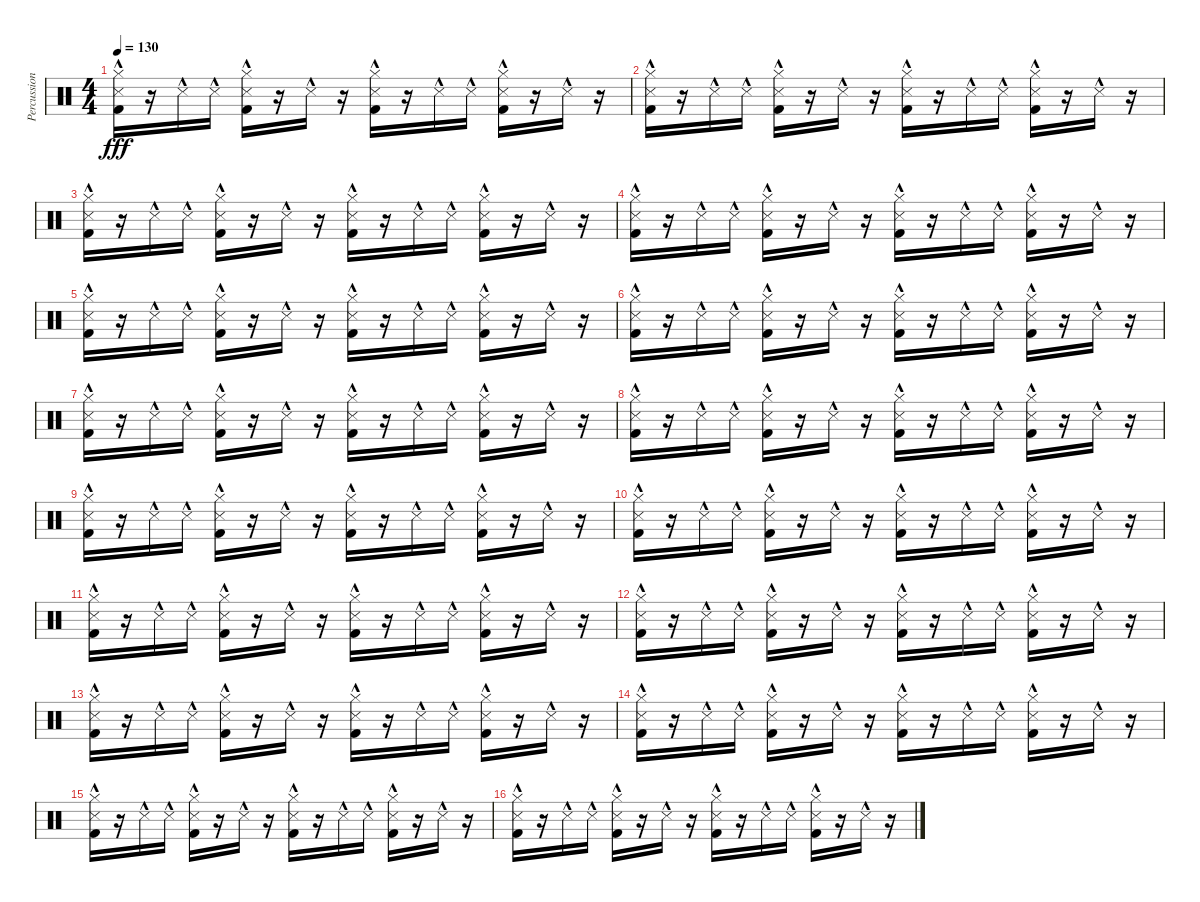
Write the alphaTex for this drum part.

\track ("Percussion" "Percussion") {instrument percussion}
\staff {score}
\articulation defaults
\ts (4 4)
\tempo 130
\clef neutral
\ks c
("Hi-Hat (closed)"{hac} "Snare (side stick) 3"{hac} "Kick (hit) 2"{hac}).16{dy fff} r.16 "Metronome (hit)"{hac}.16 "Metronome (hit)"{hac}.16 ("Hi-Hat (closed)"{hac} "Snare (side stick) 3"{hac} "Kick (hit) 2"{hac}).16 r.16 "Metronome (hit)"{hac}.16 r.16 ("Hi-Hat (closed)"{hac} "Snare (side stick) 3"{hac} "Kick (hit) 2"{hac}).16 r.16 "Metronome (hit)"{hac}.16 "Metronome (hit)"{hac}.16 ("Hi-Hat (closed)"{hac} "Snare (side stick) 3"{hac} "Kick (hit) 2"{hac}).16 r.16 "Metronome (hit)"{hac}.16 r.16 |
("Hi-Hat (closed)"{hac} "Snare (side stick) 3"{hac} "Kick (hit) 2"{hac}).16 r.16 "Metronome (hit)"{hac}.16 "Metronome (hit)"{hac}.16 ("Hi-Hat (closed)"{hac} "Snare (side stick) 3"{hac} "Kick (hit) 2"{hac}).16 r.16 "Metronome (hit)"{hac}.16 r.16 ("Hi-Hat (closed)"{hac} "Snare (side stick) 3"{hac} "Kick (hit) 2"{hac}).16 r.16 "Metronome (hit)"{hac}.16 "Metronome (hit)"{hac}.16 ("Hi-Hat (closed)"{hac} "Snare (side stick) 3"{hac} "Kick (hit) 2"{hac}).16 r.16 "Metronome (hit)"{hac}.16 r.16 |
("Hi-Hat (closed)"{hac} "Snare (side stick) 3"{hac} "Kick (hit) 2"{hac}).16 r.16 "Metronome (hit)"{hac}.16 "Metronome (hit)"{hac}.16 ("Hi-Hat (closed)"{hac} "Snare (side stick) 3"{hac} "Kick (hit) 2"{hac}).16 r.16 "Metronome (hit)"{hac}.16 r.16 ("Hi-Hat (closed)"{hac} "Snare (side stick) 3"{hac} "Kick (hit) 2"{hac}).16 r.16 "Metronome (hit)"{hac}.16 "Metronome (hit)"{hac}.16 ("Hi-Hat (closed)"{hac} "Snare (side stick) 3"{hac} "Kick (hit) 2"{hac}).16 r.16 "Metronome (hit)"{hac}.16 r.16 |
("Hi-Hat (closed)"{hac} "Snare (side stick) 3"{hac} "Kick (hit) 2"{hac}).16 r.16 "Metronome (hit)"{hac}.16 "Metronome (hit)"{hac}.16 ("Hi-Hat (closed)"{hac} "Snare (side stick) 3"{hac} "Kick (hit) 2"{hac}).16 r.16 "Metronome (hit)"{hac}.16 r.16 ("Hi-Hat (closed)"{hac} "Snare (side stick) 3"{hac} "Kick (hit) 2"{hac}).16 r.16 "Metronome (hit)"{hac}.16 "Metronome (hit)"{hac}.16 ("Hi-Hat (closed)"{hac} "Snare (side stick) 3"{hac} "Kick (hit) 2"{hac}).16 r.16 "Metronome (hit)"{hac}.16 r.16 |
("Hi-Hat (closed)"{hac} "Snare (side stick) 3"{hac} "Kick (hit) 2"{hac}).16 r.16 "Metronome (hit)"{hac}.16 "Metronome (hit)"{hac}.16 ("Hi-Hat (closed)"{hac} "Snare (side stick) 3"{hac} "Kick (hit) 2"{hac}).16 r.16 "Metronome (hit)"{hac}.16 r.16 ("Hi-Hat (closed)"{hac} "Snare (side stick) 3"{hac} "Kick (hit) 2"{hac}).16 r.16 "Metronome (hit)"{hac}.16 "Metronome (hit)"{hac}.16 ("Hi-Hat (closed)"{hac} "Snare (side stick) 3"{hac} "Kick (hit) 2"{hac}).16 r.16 "Metronome (hit)"{hac}.16 r.16 |
("Hi-Hat (closed)"{hac} "Snare (side stick) 3"{hac} "Kick (hit) 2"{hac}).16 r.16 "Metronome (hit)"{hac}.16 "Metronome (hit)"{hac}.16 ("Hi-Hat (closed)"{hac} "Snare (side stick) 3"{hac} "Kick (hit) 2"{hac}).16 r.16 "Metronome (hit)"{hac}.16 r.16 ("Hi-Hat (closed)"{hac} "Snare (side stick) 3"{hac} "Kick (hit) 2"{hac}).16 r.16 "Metronome (hit)"{hac}.16 "Metronome (hit)"{hac}.16 ("Hi-Hat (closed)"{hac} "Snare (side stick) 3"{hac} "Kick (hit) 2"{hac}).16 r.16 "Metronome (hit)"{hac}.16 r.16 |
("Hi-Hat (closed)"{hac} "Snare (side stick) 3"{hac} "Kick (hit) 2"{hac}).16 r.16 "Metronome (hit)"{hac}.16 "Metronome (hit)"{hac}.16 ("Hi-Hat (closed)"{hac} "Snare (side stick) 3"{hac} "Kick (hit) 2"{hac}).16 r.16 "Metronome (hit)"{hac}.16 r.16 ("Hi-Hat (closed)"{hac} "Snare (side stick) 3"{hac} "Kick (hit) 2"{hac}).16 r.16 "Metronome (hit)"{hac}.16 "Metronome (hit)"{hac}.16 ("Hi-Hat (closed)"{hac} "Snare (side stick) 3"{hac} "Kick (hit) 2"{hac}).16 r.16 "Metronome (hit)"{hac}.16 r.16 |
("Hi-Hat (closed)"{hac} "Snare (side stick) 3"{hac} "Kick (hit) 2"{hac}).16 r.16 "Metronome (hit)"{hac}.16 "Metronome (hit)"{hac}.16 ("Hi-Hat (closed)"{hac} "Snare (side stick) 3"{hac} "Kick (hit) 2"{hac}).16 r.16 "Metronome (hit)"{hac}.16 r.16 ("Hi-Hat (closed)"{hac} "Snare (side stick) 3"{hac} "Kick (hit) 2"{hac}).16 r.16 "Metronome (hit)"{hac}.16 "Metronome (hit)"{hac}.16 ("Hi-Hat (closed)"{hac} "Snare (side stick) 3"{hac} "Kick (hit) 2"{hac}).16 r.16 "Metronome (hit)"{hac}.16 r.16 |
("Hi-Hat (closed)"{hac} "Snare (side stick) 3"{hac} "Kick (hit) 2"{hac}).16 r.16 "Metronome (hit)"{hac}.16 "Metronome (hit)"{hac}.16 ("Hi-Hat (closed)"{hac} "Snare (side stick) 3"{hac} "Kick (hit) 2"{hac}).16 r.16 "Metronome (hit)"{hac}.16 r.16 ("Hi-Hat (closed)"{hac} "Snare (side stick) 3"{hac} "Kick (hit) 2"{hac}).16 r.16 "Metronome (hit)"{hac}.16 "Metronome (hit)"{hac}.16 ("Hi-Hat (closed)"{hac} "Snare (side stick) 3"{hac} "Kick (hit) 2"{hac}).16 r.16 "Metronome (hit)"{hac}.16 r.16 |
("Hi-Hat (closed)"{hac} "Snare (side stick) 3"{hac} "Kick (hit) 2"{hac}).16 r.16 "Metronome (hit)"{hac}.16 "Metronome (hit)"{hac}.16 ("Hi-Hat (closed)"{hac} "Snare (side stick) 3"{hac} "Kick (hit) 2"{hac}).16 r.16 "Metronome (hit)"{hac}.16 r.16 ("Hi-Hat (closed)"{hac} "Snare (side stick) 3"{hac} "Kick (hit) 2"{hac}).16 r.16 "Metronome (hit)"{hac}.16 "Metronome (hit)"{hac}.16 ("Hi-Hat (closed)"{hac} "Snare (side stick) 3"{hac} "Kick (hit) 2"{hac}).16 r.16 "Metronome (hit)"{hac}.16 r.16 |
("Hi-Hat (closed)"{hac} "Snare (side stick) 3"{hac} "Kick (hit) 2"{hac}).16 r.16 "Metronome (hit)"{hac}.16 "Metronome (hit)"{hac}.16 ("Hi-Hat (closed)"{hac} "Snare (side stick) 3"{hac} "Kick (hit) 2"{hac}).16 r.16 "Metronome (hit)"{hac}.16 r.16 ("Hi-Hat (closed)"{hac} "Snare (side stick) 3"{hac} "Kick (hit) 2"{hac}).16 r.16 "Metronome (hit)"{hac}.16 "Metronome (hit)"{hac}.16 ("Hi-Hat (closed)"{hac} "Snare (side stick) 3"{hac} "Kick (hit) 2"{hac}).16 r.16 "Metronome (hit)"{hac}.16 r.16 |
("Hi-Hat (closed)"{hac} "Snare (side stick) 3"{hac} "Kick (hit) 2"{hac}).16 r.16 "Metronome (hit)"{hac}.16 "Metronome (hit)"{hac}.16 ("Hi-Hat (closed)"{hac} "Snare (side stick) 3"{hac} "Kick (hit) 2"{hac}).16 r.16 "Metronome (hit)"{hac}.16 r.16 ("Hi-Hat (closed)"{hac} "Snare (side stick) 3"{hac} "Kick (hit) 2"{hac}).16 r.16 "Metronome (hit)"{hac}.16 "Metronome (hit)"{hac}.16 ("Hi-Hat (closed)"{hac} "Snare (side stick) 3"{hac} "Kick (hit) 2"{hac}).16 r.16 "Metronome (hit)"{hac}.16 r.16 |
("Hi-Hat (closed)"{hac} "Snare (side stick) 3"{hac} "Kick (hit) 2"{hac}).16 r.16 "Metronome (hit)"{hac}.16 "Metronome (hit)"{hac}.16 ("Hi-Hat (closed)"{hac} "Snare (side stick) 3"{hac} "Kick (hit) 2"{hac}).16 r.16 "Metronome (hit)"{hac}.16 r.16 ("Hi-Hat (closed)"{hac} "Snare (side stick) 3"{hac} "Kick (hit) 2"{hac}).16 r.16 "Metronome (hit)"{hac}.16 "Metronome (hit)"{hac}.16 ("Hi-Hat (closed)"{hac} "Snare (side stick) 3"{hac} "Kick (hit) 2"{hac}).16 r.16 "Metronome (hit)"{hac}.16 r.16 |
("Hi-Hat (closed)"{hac} "Snare (side stick) 3"{hac} "Kick (hit) 2"{hac}).16 r.16 "Metronome (hit)"{hac}.16 "Metronome (hit)"{hac}.16 ("Hi-Hat (closed)"{hac} "Snare (side stick) 3"{hac} "Kick (hit) 2"{hac}).16 r.16 "Metronome (hit)"{hac}.16 r.16 ("Hi-Hat (closed)"{hac} "Snare (side stick) 3"{hac} "Kick (hit) 2"{hac}).16 r.16 "Metronome (hit)"{hac}.16 "Metronome (hit)"{hac}.16 ("Hi-Hat (closed)"{hac} "Snare (side stick) 3"{hac} "Kick (hit) 2"{hac}).16 r.16 "Metronome (hit)"{hac}.16 r.16 |
("Hi-Hat (closed)"{hac} "Snare (side stick) 3"{hac} "Kick (hit) 2"{hac}).16 r.16 "Metronome (hit)"{hac}.16 "Metronome (hit)"{hac}.16 ("Hi-Hat (closed)"{hac} "Snare (side stick) 3"{hac} "Kick (hit) 2"{hac}).16 r.16 "Metronome (hit)"{hac}.16 r.16 ("Hi-Hat (closed)"{hac} "Snare (side stick) 3"{hac} "Kick (hit) 2"{hac}).16 r.16 "Metronome (hit)"{hac}.16 "Metronome (hit)"{hac}.16 ("Hi-Hat (closed)"{hac} "Snare (side stick) 3"{hac} "Kick (hit) 2"{hac}).16 r.16 "Metronome (hit)"{hac}.16 r.16 |
("Hi-Hat (closed)"{hac} "Snare (side stick) 3"{hac} "Kick (hit) 2"{hac}).16 r.16 "Metronome (hit)"{hac}.16 "Metronome (hit)"{hac}.16 ("Hi-Hat (closed)"{hac} "Snare (side stick) 3"{hac} "Kick (hit) 2"{hac}).16 r.16 "Metronome (hit)"{hac}.16 r.16 ("Hi-Hat (closed)"{hac} "Snare (side stick) 3"{hac} "Kick (hit) 2"{hac}).16 r.16 "Metronome (hit)"{hac}.16 "Metronome (hit)"{hac}.16 ("Hi-Hat (closed)"{hac} "Snare (side stick) 3"{hac} "Kick (hit) 2"{hac}).16 r.16 "Metronome (hit)"{hac}.16 r.16
